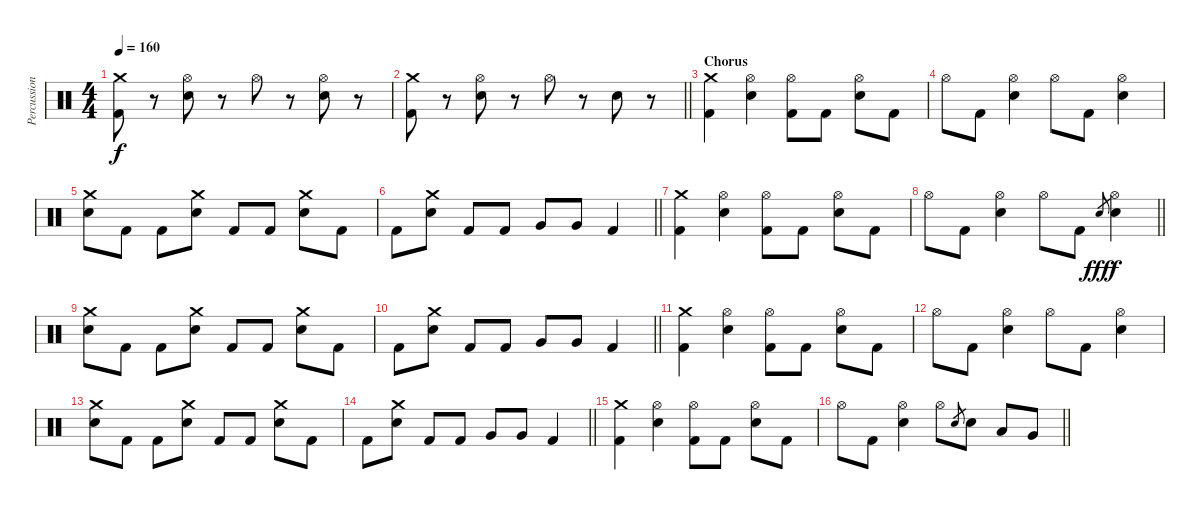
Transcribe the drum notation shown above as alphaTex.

\track ("Percussion" "Percussion") {instrument percussion}
\staff {score}
\articulation defaults
\ts (4 4)
\tempo 160
\clef neutral
\ks c
("Crash medium (hit)" "Kick (hit) 2").8{dy f} r.8 ("Hi-Hat (open)" "Electric Snare (hit)").8 r.8 "Hi-Hat (open)".8 r.8 ("Hi-Hat (open)" "Electric Snare (hit)").8 r.8 |
\barLineRight lightlight
("Crash medium (hit)" "Kick (hit) 2").8 r.8 ("Hi-Hat (open)" "Electric Snare (hit)").8 r.8 "Hi-Hat (open)".8 r.8 "Electric Snare (hit)".8 r.8 |
\section ("" "Chorus")
("Crash medium (hit)" "Kick (hit) 2").4 ("Hi-Hat (open)" "Electric Snare (hit)").4 ("Hi-Hat (open)" "Kick (hit) 2").8 "Kick (hit) 2".8 ("Hi-Hat (open)" "Electric Snare (hit)").8 "Kick (hit) 2".8 |
"Hi-Hat (open)".8 "Kick (hit) 2".8 ("Hi-Hat (open)" "Electric Snare (hit)").4 "Hi-Hat (open)".8 "Kick (hit) 2".8 ("Hi-Hat (open)" "Electric Snare (hit)").4 |
("Crash medium (hit)" "Electric Snare (hit)").8 "Kick (hit) 2".8 "Kick (hit) 2".8 ("Crash medium (hit)" "Electric Snare (hit)").8 "Kick (hit) 2".8 "Kick (hit) 2".8 ("Crash medium (hit)" "Electric Snare (hit)").8 "Kick (hit) 2".8 |
\barLineRight lightlight "Kick (hit) 2".8
("Crash medium (hit)" "Electric Snare (hit)").8 "Kick (hit) 2".8 "Kick (hit) 2".8 "Very Low Tom (hit)".8 "Very Low Tom (hit)".8 "Kick (hit) 2".4 |
("Crash medium (hit)" "Kick (hit) 2").4 ("Hi-Hat (open)" "Electric Snare (hit)").4 ("Hi-Hat (open)" "Kick (hit) 2").8 "Kick (hit) 2".8 ("Hi-Hat (open)" "Electric Snare (hit)").8 "Kick (hit) 2".8 |
\barLineRight lightlight "Hi-Hat (open)".8 "Kick (hit) 2".8
("Hi-Hat (open)" "Electric Snare (hit)").4 "Hi-Hat (open)".8 "Kick (hit) 2".8 "Electric Snare (hit)".8{gr dy fff} ("Hi-Hat (open)" "Electric Snare (hit)").4{dy f} |
("Crash medium (hit)" "Electric Snare (hit)").8 "Kick (hit) 2".8 "Kick (hit) 2".8 ("Crash medium (hit)" "Electric Snare (hit)").8 "Kick (hit) 2".8 "Kick (hit) 2".8 ("Crash medium (hit)" "Electric Snare (hit)").8 "Kick (hit) 2".8 |
\barLineRight lightlight "Kick (hit) 2".8
("Crash medium (hit)" "Electric Snare (hit)").8 "Kick (hit) 2".8 "Kick (hit) 2".8 "Very Low Tom (hit)".8 "Very Low Tom (hit)".8 "Kick (hit) 2".4 |
("Crash medium (hit)" "Kick (hit) 2").4 ("Hi-Hat (open)" "Electric Snare (hit)").4 ("Hi-Hat (open)" "Kick (hit) 2").8 "Kick (hit) 2".8 ("Hi-Hat (open)" "Electric Snare (hit)").8 "Kick (hit) 2".8 |
"Hi-Hat (open)".8 "Kick (hit) 2".8 ("Hi-Hat (open)" "Electric Snare (hit)").4 "Hi-Hat (open)".8 "Kick (hit) 2".8 ("Hi-Hat (open)" "Electric Snare (hit)").4 |
("Crash medium (hit)" "Electric Snare (hit)").8 "Kick (hit) 2".8 "Kick (hit) 2".8 ("Crash medium (hit)" "Electric Snare (hit)").8 "Kick (hit) 2".8 "Kick (hit) 2".8 ("Crash medium (hit)" "Electric Snare (hit)").8 "Kick (hit) 2".8 |
\barLineRight lightlight "Kick (hit) 2".8
("Crash medium (hit)" "Electric Snare (hit)").8 "Kick (hit) 2".8 "Kick (hit) 2".8 "Very Low Tom (hit)".8 "Very Low Tom (hit)".8 "Kick (hit) 2".4 |
("Crash medium (hit)" "Kick (hit) 2").4 ("Hi-Hat (open)" "Electric Snare (hit)").4 ("Hi-Hat (open)" "Kick (hit) 2").8 "Kick (hit) 2".8 ("Hi-Hat (open)" "Electric Snare (hit)").8 "Kick (hit) 2".8 |
\barLineRight lightlight "Hi-Hat (open)".8 "Kick (hit) 2".8
("Hi-Hat (open)" "Electric Snare (hit)").4 "Hi-Hat (open)".8 "Electric Snare (hit)".8{gr} "Electric Snare (hit)".8 "Low Tom (hit)".8 "Very Low Tom (hit)".8
